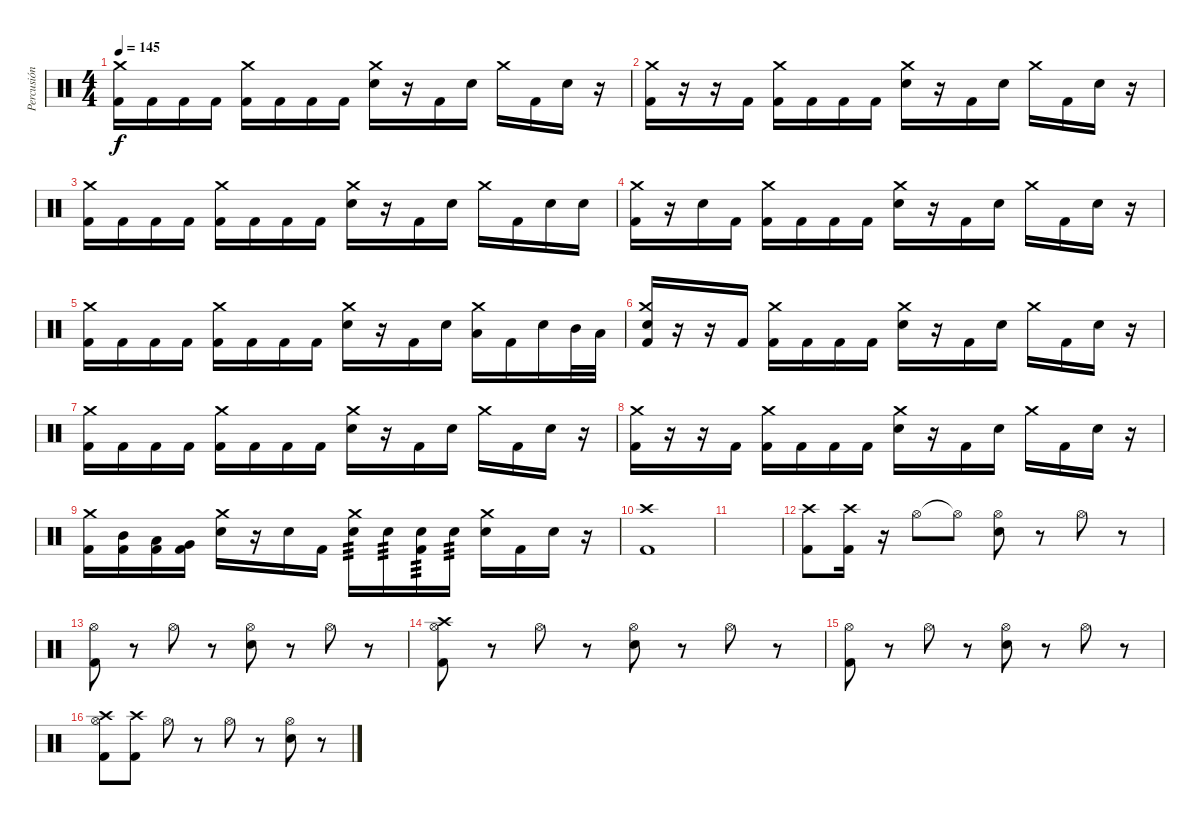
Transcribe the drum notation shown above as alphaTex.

\track ("Percusión" "Percusión") {instrument percussion}
\staff {score}
\articulation defaults
\ts (4 4)
\tempo 145
\clef neutral
\ks c
("Kick (hit) 2" "Crash medium (hit)").16{dy f} "Kick (hit) 2".16 "Kick (hit) 2".16 "Kick (hit) 2".16 ("Kick (hit) 2" "Crash medium (hit)").16 "Kick (hit) 2".16 "Kick (hit) 2".16 "Kick (hit) 2".16 ("Electric Snare (hit)" "Crash medium (hit)").16 r.16 "Kick (hit) 2".16 "Electric Snare (hit)".16 "Crash medium (hit)".16 "Kick (hit) 2".16 "Electric Snare (hit)".16 r.16 |
("Kick (hit) 2" "Crash medium (hit)").16 r.16 r.16 "Kick (hit) 2".16 ("Kick (hit) 2" "Crash medium (hit)").16 "Kick (hit) 2".16 "Kick (hit) 2".16 "Kick (hit) 2".16 ("Electric Snare (hit)" "Crash medium (hit)").16 r.16 "Kick (hit) 2".16 "Electric Snare (hit)".16 "Crash medium (hit)".16 "Kick (hit) 2".16 "Electric Snare (hit)".16 r.16 |
("Kick (hit) 2" "Crash medium (hit)").16 "Kick (hit) 2".16 "Kick (hit) 2".16 "Kick (hit) 2".16 ("Kick (hit) 2" "Crash medium (hit)").16 "Kick (hit) 2".16 "Kick (hit) 2".16 "Kick (hit) 2".16 ("Electric Snare (hit)" "Crash medium (hit)").16 r.16 "Kick (hit) 2".16 "Electric Snare (hit)".16 "Crash medium (hit)".16 "Kick (hit) 2".16 "Electric Snare (hit)".16 "Electric Snare (hit)".16 |
("Kick (hit) 2" "Crash medium (hit)").16 r.16 "Electric Snare (hit)".16 "Kick (hit) 2".16 ("Kick (hit) 2" "Crash medium (hit)").16 "Kick (hit) 2".16 "Kick (hit) 2".16 "Kick (hit) 2".16 ("Electric Snare (hit)" "Crash medium (hit)").16 r.16 "Kick (hit) 2".16 "Electric Snare (hit)".16 "Crash medium (hit)".16 "Kick (hit) 2".16 "Electric Snare (hit)".16 r.16 |
("Kick (hit) 2" "Crash medium (hit)").16 "Kick (hit) 2".16 "Kick (hit) 2".16 "Kick (hit) 2".16 ("Kick (hit) 2" "Crash medium (hit)").16 "Kick (hit) 2".16 "Kick (hit) 2".16 "Kick (hit) 2".16 ("Electric Snare (hit)" "Crash medium (hit)").16 r.16 "Kick (hit) 2".16 "Electric Snare (hit)".16 ("Low Tom (hit)" "Crash medium (hit)").16 "Kick (hit) 2".16 "Electric Snare (hit)".16 "Mid Tom (hit)".32 "Low Tom (hit)".32 |
("Kick (hit) 2" "Electric Snare (hit)" "Crash medium (hit)").16 r.16 r.16 "Kick (hit) 2".16 ("Kick (hit) 2" "Crash medium (hit)").16 "Kick (hit) 2".16 "Kick (hit) 2".16 "Kick (hit) 2".16 ("Electric Snare (hit)" "Crash medium (hit)").16 r.16 "Kick (hit) 2".16 "Electric Snare (hit)".16 "Crash medium (hit)".16 "Kick (hit) 2".16 "Electric Snare (hit)".16 r.16 |
("Kick (hit) 2" "Crash medium (hit)").16 "Kick (hit) 2".16 "Kick (hit) 2".16 "Kick (hit) 2".16 ("Kick (hit) 2" "Crash medium (hit)").16 "Kick (hit) 2".16 "Kick (hit) 2".16 "Kick (hit) 2".16 ("Electric Snare (hit)" "Crash medium (hit)").16 r.16 "Kick (hit) 2".16 "Electric Snare (hit)".16 "Crash medium (hit)".16 "Kick (hit) 2".16 "Electric Snare (hit)".16 r.16 |
("Kick (hit) 2" "Crash medium (hit)").16 r.16 r.16 "Kick (hit) 2".16 ("Kick (hit) 2" "Crash medium (hit)").16 "Kick (hit) 2".16 "Kick (hit) 2".16 "Kick (hit) 2".16 ("Electric Snare (hit)" "Crash medium (hit)").16 r.16 "Kick (hit) 2".16 "Electric Snare (hit)".16 "Crash medium (hit)".16 "Kick (hit) 2".16 "Electric Snare (hit)".16 r.16 |
("Kick (hit) 2" "Crash medium (hit)").16 ("Kick (hit) 2" "Mid Tom (hit)").16 ("Kick (hit) 2" "Low Tom (hit)").16 ("Kick (hit) 2" "Very Low Tom (hit)").16 ("Electric Snare (hit)" "Crash medium (hit)").16 r.16 "Electric Snare (hit)".16 "Kick (hit) 2".16 ("Electric Snare (hit)" "Crash medium (hit)").16{tp 3} "Electric Snare (hit)".16{tp 3} ("Kick (hit) 2" "Electric Snare (hit)").16{tp 3} "Electric Snare (hit)".16{tp 3} ("Electric Snare (hit)" "Crash medium (hit)").16 "Kick (hit) 2".16 "Electric Snare (hit)".16 r.16 |
("Kick (hit) 2" "Crash high (hit)").1 |
|
("Kick (hit) 2" "Crash high (hit)").8 ("Kick (hit) 2" "Crash high (hit)").16 r.16 "Hi-Hat (open)".8 "Hi-Hat (open)"{t}.8 ("Electric Snare (hit)" "Hi-Hat (open)").8 r.8 "Hi-Hat (open)".8 r.8 |
("Kick (hit) 2" "Hi-Hat (open)").8 r.8 "Hi-Hat (open)".8 r.8 ("Electric Snare (hit)" "Hi-Hat (open)").8 r.8 "Hi-Hat (open)".8 r.8 |
("Kick (hit) 2" "Hi-Hat (open)" "Crash high (hit)").8 r.8 "Hi-Hat (open)".8 r.8 ("Electric Snare (hit)" "Hi-Hat (open)").8 r.8 "Hi-Hat (open)".8 r.8 |
("Kick (hit) 2" "Hi-Hat (open)").8 r.8 "Hi-Hat (open)".8 r.8 ("Electric Snare (hit)" "Hi-Hat (open)").8 r.8 "Hi-Hat (open)".8 r.8 |
("Kick (hit) 2" "Hi-Hat (open)" "Crash high (hit)").8 ("Kick (hit) 2" "Crash high (hit)").8 "Hi-Hat (open)".8 r.8 "Hi-Hat (open)".8 r.8 ("Electric Snare (hit)" "Hi-Hat (open)").8 r.8
